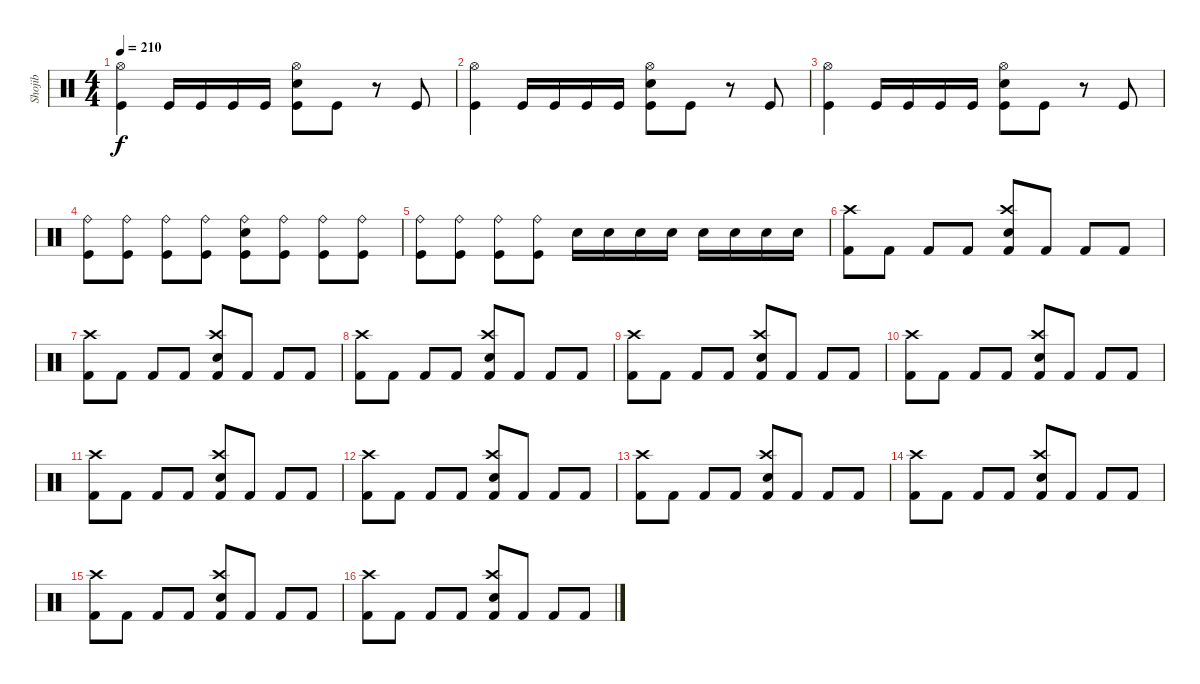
\track ("Shojib" "Shojib") {instrument percussion}
\staff {score}
\articulation defaults
\ts (4 4)
\tempo 210
\clef neutral
\ks c
("Hi-Hat (open)" "Kick (hit)").4{dy f} "Kick (hit)".16 "Kick (hit)".16 "Kick (hit)".16 "Kick (hit)".16 ("Hi-Hat (open)" "Electric Snare (hit)" "Kick (hit)").8 "Kick (hit)".8 r.8 "Kick (hit)".8 |
("Hi-Hat (open)" "Kick (hit)").4 "Kick (hit)".16 "Kick (hit)".16 "Kick (hit)".16 "Kick (hit)".16 ("Hi-Hat (open)" "Electric Snare (hit)" "Kick (hit)").8 "Kick (hit)".8 r.8 "Kick (hit)".8 |
("Hi-Hat (open)" "Kick (hit)").4 "Kick (hit)".16 "Kick (hit)".16 "Kick (hit)".16 "Kick (hit)".16 ("Hi-Hat (open)" "Electric Snare (hit)" "Kick (hit)").8 "Kick (hit)".8 r.8 "Kick (hit)".8 |
("Ride (bell)" "Kick (hit)").8 ("Ride (bell)" "Kick (hit)").8 ("Ride (bell)" "Kick (hit)").8 ("Ride (bell)" "Kick (hit)").8 ("Ride (bell)" "Electric Snare (hit)" "Kick (hit)").8 ("Ride (bell)" "Kick (hit)").8 ("Ride (bell)" "Kick (hit)").8 ("Ride (bell)" "Kick (hit)").8 |
("Ride (bell)" "Kick (hit)").8 ("Ride (bell)" "Kick (hit)").8 ("Ride (bell)" "Kick (hit)").8 ("Ride (bell)" "Kick (hit)").8 "Electric Snare (hit)".16 "Electric Snare (hit)".16 "Electric Snare (hit)".16 "Electric Snare (hit)".16 "Electric Snare (hit)".16 "Electric Snare (hit)".16 "Electric Snare (hit)".16 "Electric Snare (hit)".16 |
("Crash high (hit)" "Kick (hit) 2").8 "Kick (hit) 2".8 "Kick (hit) 2".8 "Kick (hit) 2".8 ("Crash high (hit)" "Electric Snare (hit)" "Kick (hit) 2").8 "Kick (hit) 2".8 "Kick (hit) 2".8 "Kick (hit) 2".8 |
("Crash high (hit)" "Kick (hit) 2").8 "Kick (hit) 2".8 "Kick (hit) 2".8 "Kick (hit) 2".8 ("Crash high (hit)" "Electric Snare (hit)" "Kick (hit) 2").8 "Kick (hit) 2".8 "Kick (hit) 2".8 "Kick (hit) 2".8 |
("Crash high (hit)" "Kick (hit) 2").8 "Kick (hit) 2".8 "Kick (hit) 2".8 "Kick (hit) 2".8 ("Crash high (hit)" "Electric Snare (hit)" "Kick (hit) 2").8 "Kick (hit) 2".8 "Kick (hit) 2".8 "Kick (hit) 2".8 |
("Crash high (hit)" "Kick (hit) 2").8 "Kick (hit) 2".8 "Kick (hit) 2".8 "Kick (hit) 2".8 ("Crash high (hit)" "Electric Snare (hit)" "Kick (hit) 2").8 "Kick (hit) 2".8 "Kick (hit) 2".8 "Kick (hit) 2".8 |
("Crash high (hit)" "Kick (hit) 2").8 "Kick (hit) 2".8 "Kick (hit) 2".8 "Kick (hit) 2".8 ("Crash high (hit)" "Electric Snare (hit)" "Kick (hit) 2").8 "Kick (hit) 2".8 "Kick (hit) 2".8 "Kick (hit) 2".8 |
("Crash high (hit)" "Kick (hit) 2").8 "Kick (hit) 2".8 "Kick (hit) 2".8 "Kick (hit) 2".8 ("Crash high (hit)" "Electric Snare (hit)" "Kick (hit) 2").8 "Kick (hit) 2".8 "Kick (hit) 2".8 "Kick (hit) 2".8 |
("Crash high (hit)" "Kick (hit) 2").8 "Kick (hit) 2".8 "Kick (hit) 2".8 "Kick (hit) 2".8 ("Crash high (hit)" "Electric Snare (hit)" "Kick (hit) 2").8 "Kick (hit) 2".8 "Kick (hit) 2".8 "Kick (hit) 2".8 |
("Crash high (hit)" "Kick (hit) 2").8 "Kick (hit) 2".8 "Kick (hit) 2".8 "Kick (hit) 2".8 ("Crash high (hit)" "Electric Snare (hit)" "Kick (hit) 2").8 "Kick (hit) 2".8 "Kick (hit) 2".8 "Kick (hit) 2".8 |
("Crash high (hit)" "Kick (hit) 2").8 "Kick (hit) 2".8 "Kick (hit) 2".8 "Kick (hit) 2".8 ("Crash high (hit)" "Electric Snare (hit)" "Kick (hit) 2").8 "Kick (hit) 2".8 "Kick (hit) 2".8 "Kick (hit) 2".8 |
("Crash high (hit)" "Kick (hit) 2").8 "Kick (hit) 2".8 "Kick (hit) 2".8 "Kick (hit) 2".8 ("Crash high (hit)" "Electric Snare (hit)" "Kick (hit) 2").8 "Kick (hit) 2".8 "Kick (hit) 2".8 "Kick (hit) 2".8 |
("Crash high (hit)" "Kick (hit) 2").8 "Kick (hit) 2".8 "Kick (hit) 2".8 "Kick (hit) 2".8 ("Crash high (hit)" "Electric Snare (hit)" "Kick (hit) 2").8 "Kick (hit) 2".8 "Kick (hit) 2".8 "Kick (hit) 2".8
